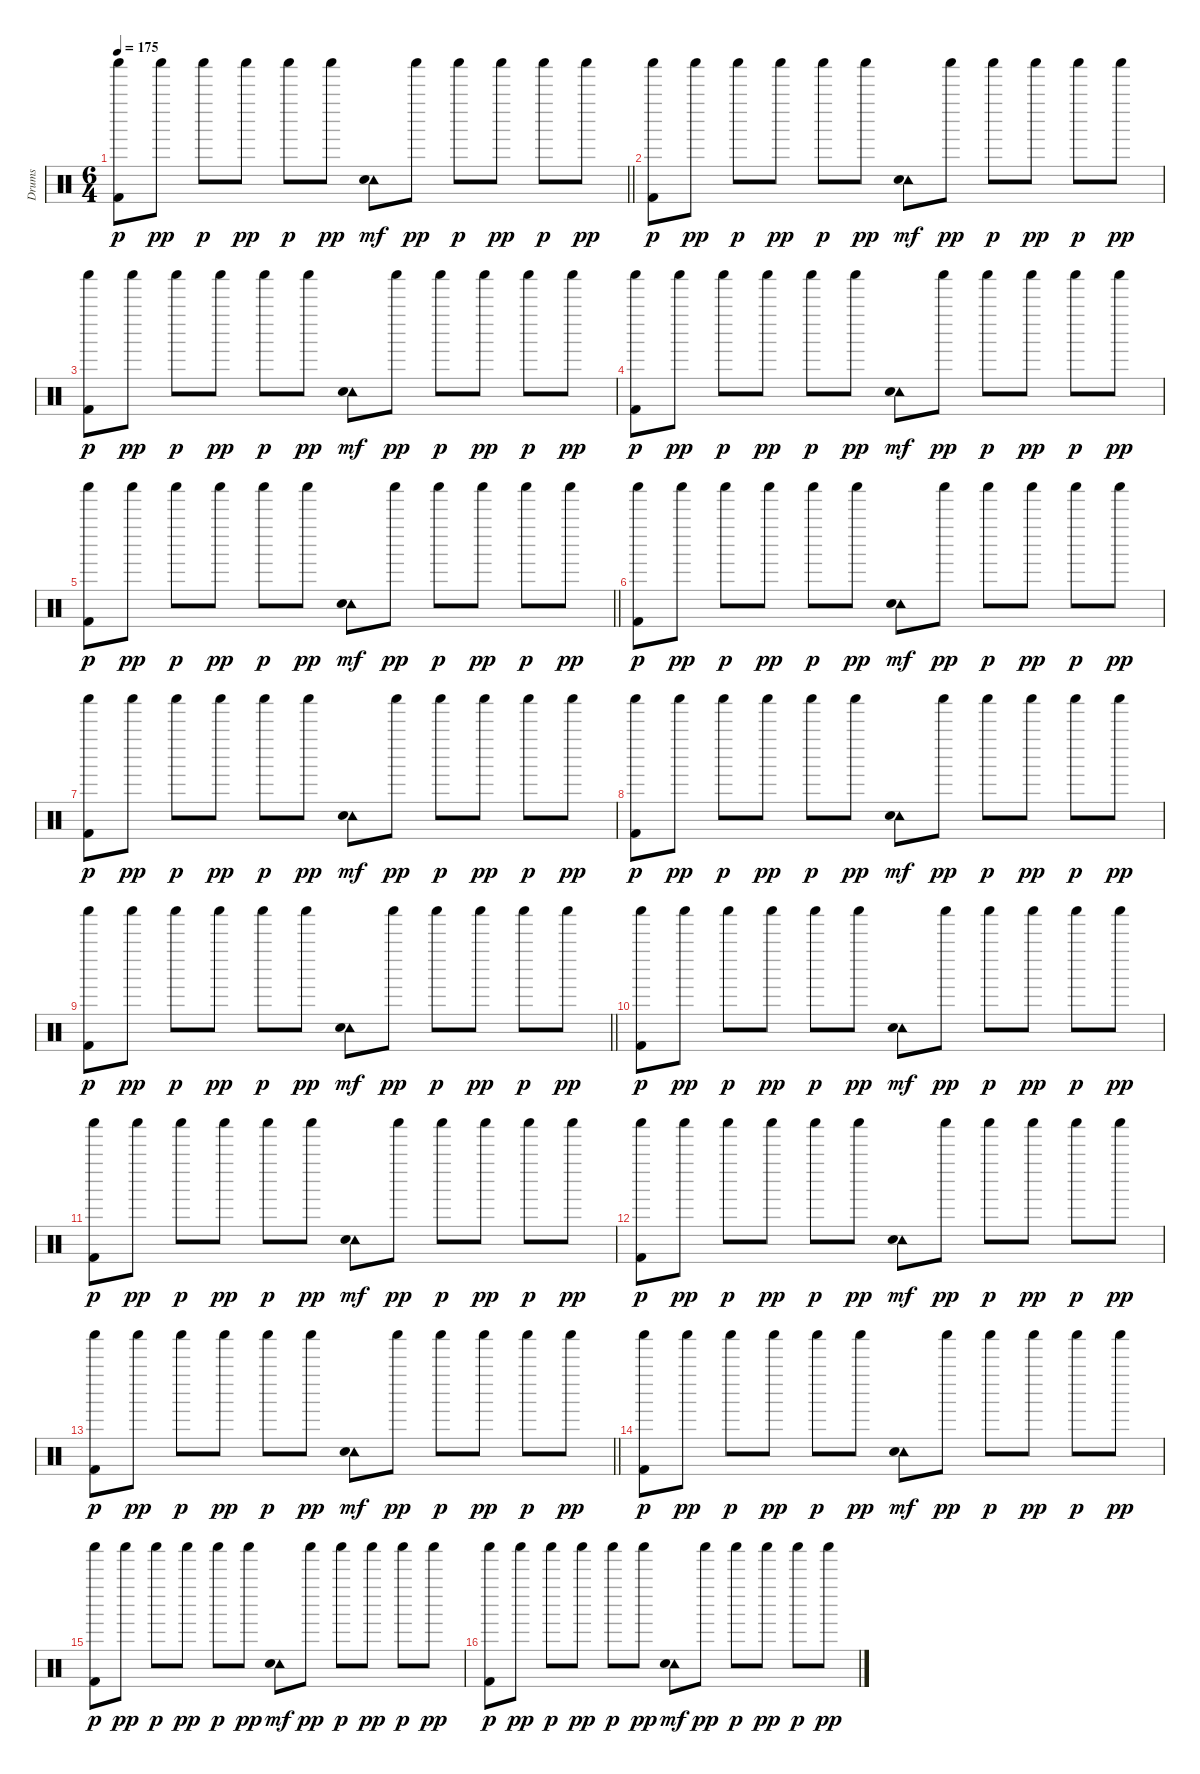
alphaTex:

\track ("Drums" "Drums") {instrument percussion}
\staff {score}
\articulation defaults
\ts (6 4)
\tempo 175
\clef neutral
\barLineRight lightlight
\ks c
("Shaker (hit)" "Kick (hit) 2").8{dy p} "Shaker (hit)".8{dy pp} "Shaker (hit)".8{dy p} "Shaker (hit)".8{dy pp} "Shaker (hit)".8{dy p} "Shaker (hit)".8{dy pp} ("Tambourine (hit)" "Snare (hit) 2").8{dy mf} "Shaker (hit)".8{dy pp} "Shaker (hit)".8{dy p} "Shaker (hit)".8{dy pp} "Shaker (hit)".8{dy p} "Shaker (hit)".8{dy pp} |
("Shaker (hit)" "Kick (hit) 2").8{dy p} "Shaker (hit)".8{dy pp} "Shaker (hit)".8{dy p} "Shaker (hit)".8{dy pp} "Shaker (hit)".8{dy p} "Shaker (hit)".8{dy pp} ("Tambourine (hit)" "Snare (hit) 2").8{dy mf} "Shaker (hit)".8{dy pp} "Shaker (hit)".8{dy p} "Shaker (hit)".8{dy pp} "Shaker (hit)".8{dy p} "Shaker (hit)".8{dy pp} |
("Shaker (hit)" "Kick (hit) 2").8{dy p} "Shaker (hit)".8{dy pp} "Shaker (hit)".8{dy p} "Shaker (hit)".8{dy pp} "Shaker (hit)".8{dy p} "Shaker (hit)".8{dy pp} ("Tambourine (hit)" "Snare (hit) 2").8{dy mf} "Shaker (hit)".8{dy pp} "Shaker (hit)".8{dy p} "Shaker (hit)".8{dy pp} "Shaker (hit)".8{dy p} "Shaker (hit)".8{dy pp} |
("Shaker (hit)" "Kick (hit) 2").8{dy p} "Shaker (hit)".8{dy pp} "Shaker (hit)".8{dy p} "Shaker (hit)".8{dy pp} "Shaker (hit)".8{dy p} "Shaker (hit)".8{dy pp} ("Tambourine (hit)" "Snare (hit) 2").8{dy mf} "Shaker (hit)".8{dy pp} "Shaker (hit)".8{dy p} "Shaker (hit)".8{dy pp} "Shaker (hit)".8{dy p} "Shaker (hit)".8{dy pp} |
\barLineRight lightlight
("Shaker (hit)" "Kick (hit) 2").8{dy p} "Shaker (hit)".8{dy pp} "Shaker (hit)".8{dy p} "Shaker (hit)".8{dy pp} "Shaker (hit)".8{dy p} "Shaker (hit)".8{dy pp} ("Tambourine (hit)" "Snare (hit) 2").8{dy mf} "Shaker (hit)".8{dy pp} "Shaker (hit)".8{dy p} "Shaker (hit)".8{dy pp} "Shaker (hit)".8{dy p} "Shaker (hit)".8{dy pp} |
("Shaker (hit)" "Kick (hit) 2").8{dy p} "Shaker (hit)".8{dy pp} "Shaker (hit)".8{dy p} "Shaker (hit)".8{dy pp} "Shaker (hit)".8{dy p} "Shaker (hit)".8{dy pp} ("Tambourine (hit)" "Snare (hit) 2").8{dy mf} "Shaker (hit)".8{dy pp} "Shaker (hit)".8{dy p} "Shaker (hit)".8{dy pp} "Shaker (hit)".8{dy p} "Shaker (hit)".8{dy pp} |
("Shaker (hit)" "Kick (hit) 2").8{dy p} "Shaker (hit)".8{dy pp} "Shaker (hit)".8{dy p} "Shaker (hit)".8{dy pp} "Shaker (hit)".8{dy p} "Shaker (hit)".8{dy pp} ("Tambourine (hit)" "Snare (hit) 2").8{dy mf} "Shaker (hit)".8{dy pp} "Shaker (hit)".8{dy p} "Shaker (hit)".8{dy pp} "Shaker (hit)".8{dy p} "Shaker (hit)".8{dy pp} |
("Shaker (hit)" "Kick (hit) 2").8{dy p} "Shaker (hit)".8{dy pp} "Shaker (hit)".8{dy p} "Shaker (hit)".8{dy pp} "Shaker (hit)".8{dy p} "Shaker (hit)".8{dy pp} ("Tambourine (hit)" "Snare (hit) 2").8{dy mf} "Shaker (hit)".8{dy pp} "Shaker (hit)".8{dy p} "Shaker (hit)".8{dy pp} "Shaker (hit)".8{dy p} "Shaker (hit)".8{dy pp} |
\barLineRight lightlight
("Shaker (hit)" "Kick (hit) 2").8{dy p} "Shaker (hit)".8{dy pp} "Shaker (hit)".8{dy p} "Shaker (hit)".8{dy pp} "Shaker (hit)".8{dy p} "Shaker (hit)".8{dy pp} ("Tambourine (hit)" "Snare (hit) 2").8{dy mf} "Shaker (hit)".8{dy pp} "Shaker (hit)".8{dy p} "Shaker (hit)".8{dy pp} "Shaker (hit)".8{dy p} "Shaker (hit)".8{dy pp} |
("Shaker (hit)" "Kick (hit) 2").8{dy p} "Shaker (hit)".8{dy pp} "Shaker (hit)".8{dy p} "Shaker (hit)".8{dy pp} "Shaker (hit)".8{dy p} "Shaker (hit)".8{dy pp} ("Tambourine (hit)" "Snare (hit) 2").8{dy mf} "Shaker (hit)".8{dy pp} "Shaker (hit)".8{dy p} "Shaker (hit)".8{dy pp} "Shaker (hit)".8{dy p} "Shaker (hit)".8{dy pp} |
("Shaker (hit)" "Kick (hit) 2").8{dy p} "Shaker (hit)".8{dy pp} "Shaker (hit)".8{dy p} "Shaker (hit)".8{dy pp} "Shaker (hit)".8{dy p} "Shaker (hit)".8{dy pp} ("Tambourine (hit)" "Snare (hit) 2").8{dy mf} "Shaker (hit)".8{dy pp} "Shaker (hit)".8{dy p} "Shaker (hit)".8{dy pp} "Shaker (hit)".8{dy p} "Shaker (hit)".8{dy pp} |
("Shaker (hit)" "Kick (hit) 2").8{dy p} "Shaker (hit)".8{dy pp} "Shaker (hit)".8{dy p} "Shaker (hit)".8{dy pp} "Shaker (hit)".8{dy p} "Shaker (hit)".8{dy pp} ("Tambourine (hit)" "Snare (hit) 2").8{dy mf} "Shaker (hit)".8{dy pp} "Shaker (hit)".8{dy p} "Shaker (hit)".8{dy pp} "Shaker (hit)".8{dy p} "Shaker (hit)".8{dy pp} |
\barLineRight lightlight
("Shaker (hit)" "Kick (hit) 2").8{dy p} "Shaker (hit)".8{dy pp} "Shaker (hit)".8{dy p} "Shaker (hit)".8{dy pp} "Shaker (hit)".8{dy p} "Shaker (hit)".8{dy pp} ("Tambourine (hit)" "Snare (hit) 2").8{dy mf} "Shaker (hit)".8{dy pp} "Shaker (hit)".8{dy p} "Shaker (hit)".8{dy pp} "Shaker (hit)".8{dy p} "Shaker (hit)".8{dy pp} |
("Shaker (hit)" "Kick (hit) 2").8{dy p} "Shaker (hit)".8{dy pp} "Shaker (hit)".8{dy p} "Shaker (hit)".8{dy pp} "Shaker (hit)".8{dy p} "Shaker (hit)".8{dy pp} ("Tambourine (hit)" "Snare (hit) 2").8{dy mf} "Shaker (hit)".8{dy pp} "Shaker (hit)".8{dy p} "Shaker (hit)".8{dy pp} "Shaker (hit)".8{dy p} "Shaker (hit)".8{dy pp} |
("Shaker (hit)" "Kick (hit) 2").8{dy p} "Shaker (hit)".8{dy pp} "Shaker (hit)".8{dy p} "Shaker (hit)".8{dy pp} "Shaker (hit)".8{dy p} "Shaker (hit)".8{dy pp} ("Tambourine (hit)" "Snare (hit) 2").8{dy mf} "Shaker (hit)".8{dy pp} "Shaker (hit)".8{dy p} "Shaker (hit)".8{dy pp} "Shaker (hit)".8{dy p} "Shaker (hit)".8{dy pp} |
("Shaker (hit)" "Kick (hit) 2").8{dy p} "Shaker (hit)".8{dy pp} "Shaker (hit)".8{dy p} "Shaker (hit)".8{dy pp} "Shaker (hit)".8{dy p} "Shaker (hit)".8{dy pp} ("Tambourine (hit)" "Snare (hit) 2").8{dy mf} "Shaker (hit)".8{dy pp} "Shaker (hit)".8{dy p} "Shaker (hit)".8{dy pp} "Shaker (hit)".8{dy p} "Shaker (hit)".8{dy pp}
